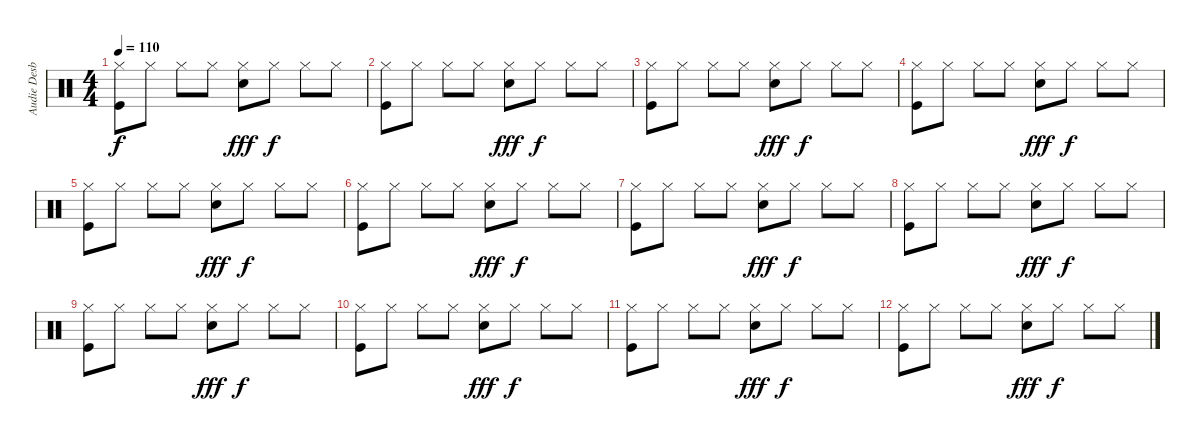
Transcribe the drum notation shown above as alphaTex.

\track ("Audie Desbrow" "Audie Desb") {instrument percussion}
\staff {score}
\articulation defaults
\ts (4 4)
\tempo 110
\clef neutral
\ks c
("Hi-Hat (closed)" "Kick (hit)").8{dy f} "Hi-Hat (closed)".8 "Hi-Hat (closed)".8 "Hi-Hat (closed)".8 ("Hi-Hat (closed)" "Snare (hit) 2").8{dy fff} "Hi-Hat (closed)".8{dy f} "Hi-Hat (closed)".8 "Hi-Hat (closed)".8 |
("Hi-Hat (closed)" "Kick (hit)").8 "Hi-Hat (closed)".8 "Hi-Hat (closed)".8 "Hi-Hat (closed)".8 ("Hi-Hat (closed)" "Snare (hit) 2").8{dy fff} "Hi-Hat (closed)".8{dy f} "Hi-Hat (closed)".8 "Hi-Hat (closed)".8 |
("Hi-Hat (closed)" "Kick (hit)").8{volume 15} "Hi-Hat (closed)".8 "Hi-Hat (closed)".8 "Hi-Hat (closed)".8 ("Hi-Hat (closed)" "Snare (hit) 2").8{dy fff} "Hi-Hat (closed)".8{dy f} "Hi-Hat (closed)".8 "Hi-Hat (closed)".8 |
("Hi-Hat (closed)" "Kick (hit)").8{volume 14} "Hi-Hat (closed)".8 "Hi-Hat (closed)".8 "Hi-Hat (closed)".8 ("Hi-Hat (closed)" "Snare (hit) 2").8{dy fff} "Hi-Hat (closed)".8{dy f} "Hi-Hat (closed)".8 "Hi-Hat (closed)".8 |
("Hi-Hat (closed)" "Kick (hit)").8{volume 13} "Hi-Hat (closed)".8 "Hi-Hat (closed)".8 "Hi-Hat (closed)".8 ("Hi-Hat (closed)" "Snare (hit) 2").8{dy fff} "Hi-Hat (closed)".8{dy f} "Hi-Hat (closed)".8 "Hi-Hat (closed)".8 |
("Hi-Hat (closed)" "Kick (hit)").8{volume 12} "Hi-Hat (closed)".8 "Hi-Hat (closed)".8 "Hi-Hat (closed)".8 ("Hi-Hat (closed)" "Snare (hit) 2").8{dy fff} "Hi-Hat (closed)".8{dy f} "Hi-Hat (closed)".8 "Hi-Hat (closed)".8 |
("Hi-Hat (closed)" "Kick (hit)").8{volume 11} "Hi-Hat (closed)".8 "Hi-Hat (closed)".8 "Hi-Hat (closed)".8 ("Hi-Hat (closed)" "Snare (hit) 2").8{dy fff} "Hi-Hat (closed)".8{dy f} "Hi-Hat (closed)".8 "Hi-Hat (closed)".8 |
("Hi-Hat (closed)" "Kick (hit)").8{volume 10} "Hi-Hat (closed)".8 "Hi-Hat (closed)".8 "Hi-Hat (closed)".8 ("Hi-Hat (closed)" "Snare (hit) 2").8{dy fff} "Hi-Hat (closed)".8{dy f} "Hi-Hat (closed)".8 "Hi-Hat (closed)".8 |
("Hi-Hat (closed)" "Kick (hit)").8{volume 9} "Hi-Hat (closed)".8 "Hi-Hat (closed)".8 "Hi-Hat (closed)".8 ("Hi-Hat (closed)" "Snare (hit) 2").8{dy fff} "Hi-Hat (closed)".8{dy f} "Hi-Hat (closed)".8 "Hi-Hat (closed)".8 |
("Hi-Hat (closed)" "Kick (hit)").8{volume 8} "Hi-Hat (closed)".8 "Hi-Hat (closed)".8 "Hi-Hat (closed)".8 ("Hi-Hat (closed)" "Snare (hit) 2").8{dy fff} "Hi-Hat (closed)".8{dy f} "Hi-Hat (closed)".8 "Hi-Hat (closed)".8 |
("Hi-Hat (closed)" "Kick (hit)").8{volume 5} "Hi-Hat (closed)".8 "Hi-Hat (closed)".8 "Hi-Hat (closed)".8 ("Hi-Hat (closed)" "Snare (hit) 2").8{dy fff} "Hi-Hat (closed)".8{dy f} "Hi-Hat (closed)".8 "Hi-Hat (closed)".8 |
("Hi-Hat (closed)" "Kick (hit)").8{volume 3} "Hi-Hat (closed)".8 "Hi-Hat (closed)".8 "Hi-Hat (closed)".8 ("Hi-Hat (closed)" "Snare (hit) 2").8{dy fff} "Hi-Hat (closed)".8{dy f} "Hi-Hat (closed)".8 "Hi-Hat (closed)".8
